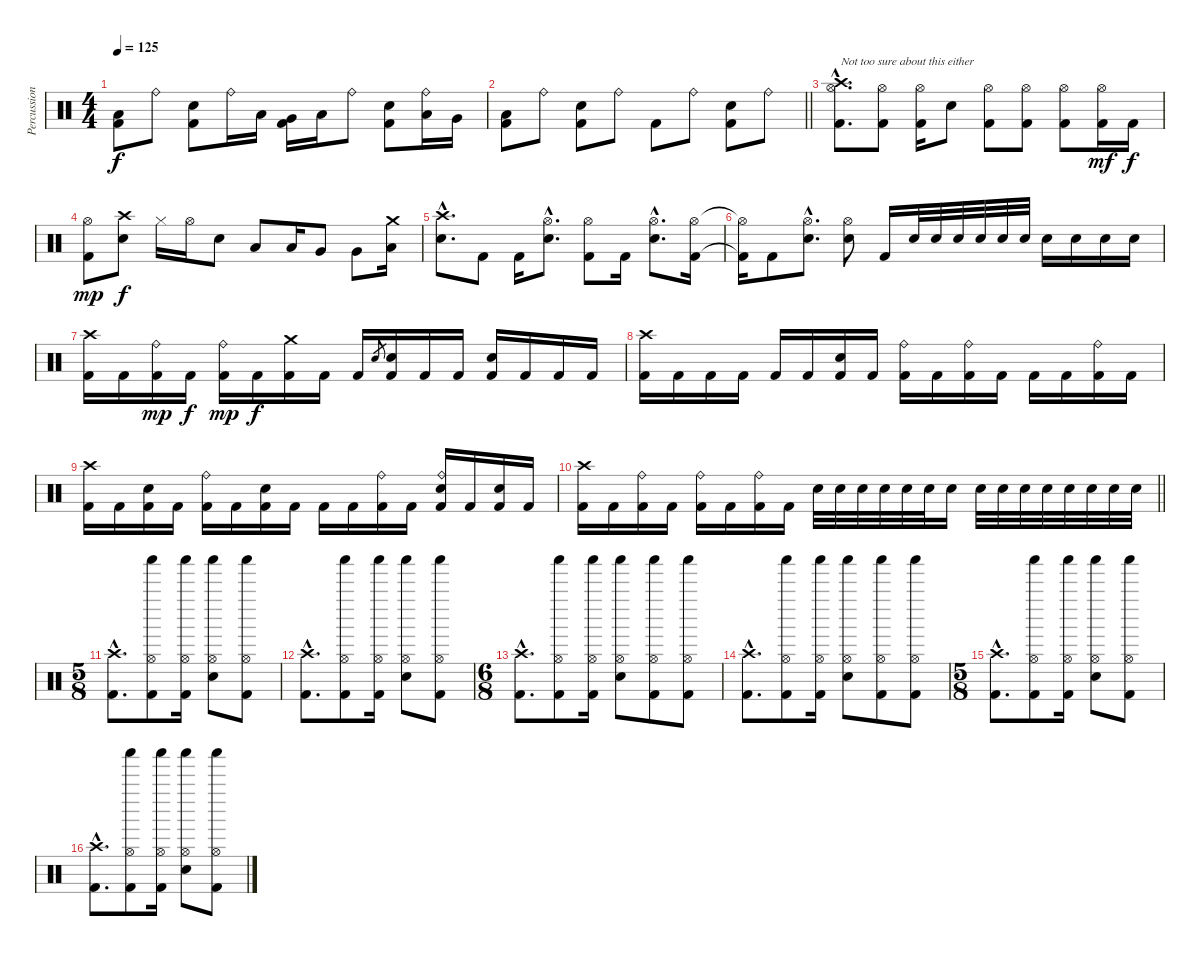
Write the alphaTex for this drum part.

\track ("Percussion" "Percussion") {instrument percussion}
\staff {score}
\articulation defaults
\ts (4 4)
\tempo 125
\clef neutral
\ks c
("Low Floor Tom (hit)" "Kick (hit) 2").8{dy f} "Ride (bell)".8 ("Electric Snare (hit)" "Kick (hit) 2").8 "Ride (bell)".16 "Low Tom (hit)".16 ("Very Low Tom (hit)" "Kick (hit) 2").16 "Low Floor Tom (hit)".16 "Ride (bell)".8 ("Electric Snare (hit)" "Kick (hit) 2").8 ("Ride (bell)" "Low Tom (hit)").16 "Very Low Tom (hit)".16 |
\barLineRight lightlight
("Low Floor Tom (hit)" "Kick (hit) 2").8 "Ride (bell)".8 ("Electric Snare (hit)" "Kick (hit) 2").8 "Ride (bell)".8 "Kick (hit) 2".8 "Ride (bell)".8 ("Electric Snare (hit)" "Kick (hit) 2").8 "Ride (bell)".8 |
("Crash high (hit)"{hac} "Hi-Hat (open)"{hac} "Kick (hit) 2"{hac}).8{d txt "Not too sure about this either"} ("Hi-Hat (open)" "Kick (hit) 2").8 ("Hi-Hat (open)" "Kick (hit) 2").16 "Electric Snare (hit)".8 ("Hi-Hat (open)" "Kick (hit) 2").8 ("Hi-Hat (open)" "Kick (hit) 2").8 ("Hi-Hat (open)" "Kick (hit) 2").8 ("Hi-Hat (open)" "Kick (hit) 2").16{dy mf} "Kick (hit) 2".16{dy f} |
("Hi-Hat (open)" "Kick (hit) 2").8{dy mp} ("Crash high (hit)" "Electric Snare (hit)").8{dy f} "Hi-Hat (closed)".16 "Hi-Hat (open)".16 "Electric Snare (hit)".8 "Low Tom (hit)".8 "Low Tom (hit)".16 "Very Low Tom (hit)".8 "Very Low Tom (hit)".8 ("Crash medium (hit)" "Low Floor Tom (hit)").16 |
("Crash high (hit)"{hac} "Electric Snare (hit)"{hac}).8{d} "Kick (hit) 2".8 "Kick (hit) 2".16 ("Hi-Hat (open)"{hac} "Electric Snare (hit)"{hac}).8{d} ("Hi-Hat (open)" "Kick (hit) 2").8 "Kick (hit) 2".16 ("Hi-Hat (open)"{hac} "Electric Snare (hit)"{hac}).8{d} ("Hi-Hat (open)" "Kick (hit) 2").16 |
("Hi-Hat (open)"{t} "Kick (hit) 2"{t}).16 "Kick (hit) 2".8 ("Hi-Hat (open)"{hac} "Electric Snare (hit)"{hac}).8{d} ("Hi-Hat (open)" "Electric Snare (hit)").8 "Kick (hit) 2".16 "Electric Snare (hit)".32 "Electric Snare (hit)".32 "Electric Snare (hit)".32 "Electric Snare (hit)".32 "Electric Snare (hit)".32 "Electric Snare (hit)".32 "Electric Snare (hit)".16 "Electric Snare (hit)".16 "Electric Snare (hit)".16 "Electric Snare (hit)".16 |
("Crash high (hit)" "Kick (hit) 2").16 "Kick (hit) 2".16 ("Ride (bell)" "Kick (hit) 2").16{dy mp} "Kick (hit) 2".16{dy f} ("Ride (bell)" "Kick (hit) 2").16{dy mp} "Kick (hit) 2".16{dy f} ("Crash medium (hit)" "Kick (hit) 2").16 "Kick (hit) 2".16 "Kick (hit) 2".16 "Electric Snare (hit)".8{gr} ("Electric Snare (hit)" "Kick (hit) 2").16 "Kick (hit) 2".16 "Kick (hit) 2".16 ("Electric Snare (hit)" "Kick (hit) 2").16 "Kick (hit) 2".16 "Kick (hit) 2".16 "Kick (hit) 2".16 |
("Crash high (hit)" "Kick (hit) 2").16 "Kick (hit) 2".16 "Kick (hit) 2".16 "Kick (hit) 2".16 "Kick (hit) 2".16 "Kick (hit) 2".16 ("Electric Snare (hit)" "Kick (hit) 2").16 "Kick (hit) 2".16 ("Ride (bell)" "Kick (hit) 2").16 "Kick (hit) 2".16 ("Ride (bell)" "Kick (hit) 2").16 "Kick (hit) 2".16 "Kick (hit) 2".16 "Kick (hit) 2".16 ("Ride (bell)" "Kick (hit) 2").16 "Kick (hit) 2".16 |
("Crash high (hit)" "Kick (hit) 2").16 "Kick (hit) 2".16 ("Electric Snare (hit)" "Kick (hit) 2").16 "Kick (hit) 2".16 ("Ride (bell)" "Kick (hit) 2").16 "Kick (hit) 2".16 ("Electric Snare (hit)" "Kick (hit) 2").16 "Kick (hit) 2".16 "Kick (hit) 2".16 "Kick (hit) 2".16 ("Ride (bell)" "Kick (hit) 2").16 "Kick (hit) 2".16 ("Ride (bell)" "Electric Snare (hit)" "Kick (hit) 2").16 "Kick (hit) 2".16 ("Electric Snare (hit)" "Kick (hit) 2").16 "Kick (hit) 2".16 |
\barLineRight lightlight
("Crash high (hit)" "Kick (hit) 2").16 "Kick (hit) 2".16 ("Ride (bell)" "Kick (hit) 2").16 "Kick (hit) 2".16 ("Ride (bell)" "Kick (hit) 2").16 "Kick (hit) 2".16 ("Ride (bell)" "Kick (hit) 2").16 "Kick (hit) 2".16 "Electric Snare (hit)".32 "Electric Snare (hit)".32 "Electric Snare (hit)".32 "Electric Snare (hit)".32 "Electric Snare (hit)".32 "Electric Snare (hit)".32 "Electric Snare (hit)".16 "Electric Snare (hit)".32 "Electric Snare (hit)".32 "Electric Snare (hit)".32 "Electric Snare (hit)".32 "Electric Snare (hit)".32 "Electric Snare (hit)".32 "Electric Snare (hit)".32 "Electric Snare (hit)".32 |
\ts (5 8)
("Crash high (hit)"{hac} "Kick (hit) 2"{hac}).8{d} ("Shaker (hit)" "Hi-Hat (open)" "Kick (hit) 2").8 ("Shaker (hit)" "Hi-Hat (open)" "Kick (hit) 2").16 ("Shaker (hit)" "Hi-Hat (open)" "Electric Snare (hit)").8 ("Shaker (hit)" "Hi-Hat (open)" "Kick (hit) 2").8 |
("Crash high (hit)"{hac} "Kick (hit) 2"{hac}).8{d} ("Shaker (hit)" "Hi-Hat (open)" "Kick (hit) 2").8 ("Shaker (hit)" "Hi-Hat (open)" "Kick (hit) 2").16 ("Shaker (hit)" "Hi-Hat (open)" "Electric Snare (hit)").8 ("Shaker (hit)" "Hi-Hat (open)" "Kick (hit) 2").8 |
\ts (6 8)
("Crash high (hit)"{hac} "Kick (hit) 2"{hac}).8{d} ("Shaker (hit)" "Hi-Hat (open)" "Kick (hit) 2").8 ("Shaker (hit)" "Hi-Hat (open)" "Kick (hit) 2").16 ("Shaker (hit)" "Hi-Hat (open)" "Electric Snare (hit)").8 ("Shaker (hit)" "Hi-Hat (open)" "Kick (hit) 2").8 ("Shaker (hit)" "Hi-Hat (open)" "Kick (hit) 2").8 |
("Crash high (hit)"{hac} "Kick (hit) 2"{hac}).8{d} ("Shaker (hit)" "Hi-Hat (open)" "Kick (hit) 2").8 ("Shaker (hit)" "Hi-Hat (open)" "Kick (hit) 2").16 ("Shaker (hit)" "Hi-Hat (open)" "Electric Snare (hit)").8 ("Shaker (hit)" "Hi-Hat (open)" "Kick (hit) 2").8 ("Shaker (hit)" "Hi-Hat (open)" "Kick (hit) 2").8 |
\ts (5 8)
("Crash high (hit)"{hac} "Kick (hit) 2"{hac}).8{d} ("Shaker (hit)" "Hi-Hat (open)" "Kick (hit) 2").8 ("Shaker (hit)" "Hi-Hat (open)" "Kick (hit) 2").16 ("Shaker (hit)" "Hi-Hat (open)" "Electric Snare (hit)").8 ("Shaker (hit)" "Hi-Hat (open)" "Kick (hit) 2").8 |
("Crash high (hit)"{hac} "Kick (hit) 2"{hac}).8{d} ("Shaker (hit)" "Hi-Hat (open)" "Kick (hit) 2").8 ("Shaker (hit)" "Hi-Hat (open)" "Kick (hit) 2").16 ("Shaker (hit)" "Hi-Hat (open)" "Electric Snare (hit)").8 ("Shaker (hit)" "Hi-Hat (open)" "Kick (hit) 2").8
